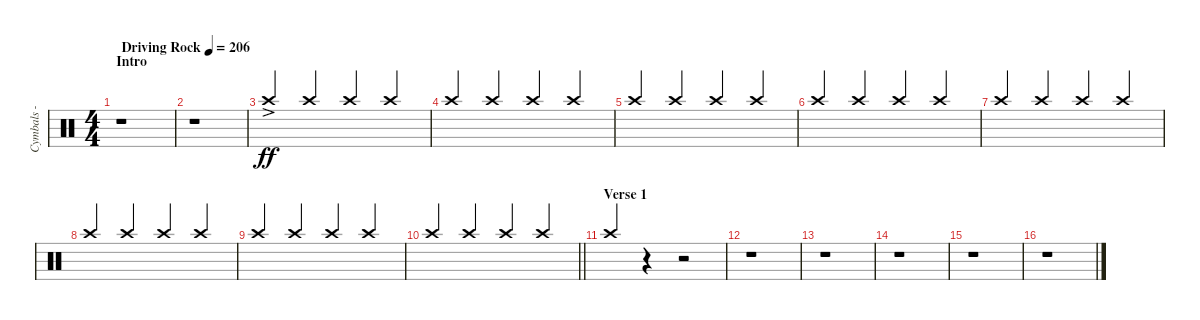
\track ("Cymbals - crash" "Cymbals - ") {instrument percussion}
\staff {score}
\articulation defaults
\ts (4 4)
\section ("" "Intro")
\tempo (206 "Driving Rock")
\clef neutral
\ks c
r.1{dy ff} |
r.1{volume 4} |
"Crash high (hit)"{ac}.4{beam Up} "Crash high (hit)".4{beam Up} "Crash high (hit)".4{beam Up} "Crash high (hit)".4{beam Up} |
"Crash high (hit)".4{beam Up} "Crash high (hit)".4{beam Up} "Crash high (hit)".4{beam Up} "Crash high (hit)".4{beam Up} |
"Crash high (hit)".4{beam Up} "Crash high (hit)".4{beam Up} "Crash high (hit)".4{beam Up} "Crash high (hit)".4{beam Up} |
"Crash high (hit)".4{beam Up} "Crash high (hit)".4{beam Up} "Crash high (hit)".4{beam Up} "Crash high (hit)".4{beam Up} |
"Crash high (hit)".4{beam Up} "Crash high (hit)".4{beam Up} "Crash high (hit)".4{beam Up} "Crash high (hit)".4{beam Up} |
"Crash high (hit)".4{beam Up} "Crash high (hit)".4{beam Up} "Crash high (hit)".4{beam Up} "Crash high (hit)".4{beam Up} |
"Crash high (hit)".4{beam Up} "Crash high (hit)".4{beam Up} "Crash high (hit)".4{beam Up} "Crash high (hit)".4{beam Up} |
\barLineRight lightlight "Crash high (hit)".4{beam Up} "Crash high (hit)".4{beam Up} "Crash high (hit)".4{beam Up} "Crash high (hit)".4{beam Up}
|
\section ("" "Verse 1")
"Crash high (hit)".4{beam Up} r.4 r.2 |
r.1 |
r.1 |
r.1 |
r.1 |
r.1
